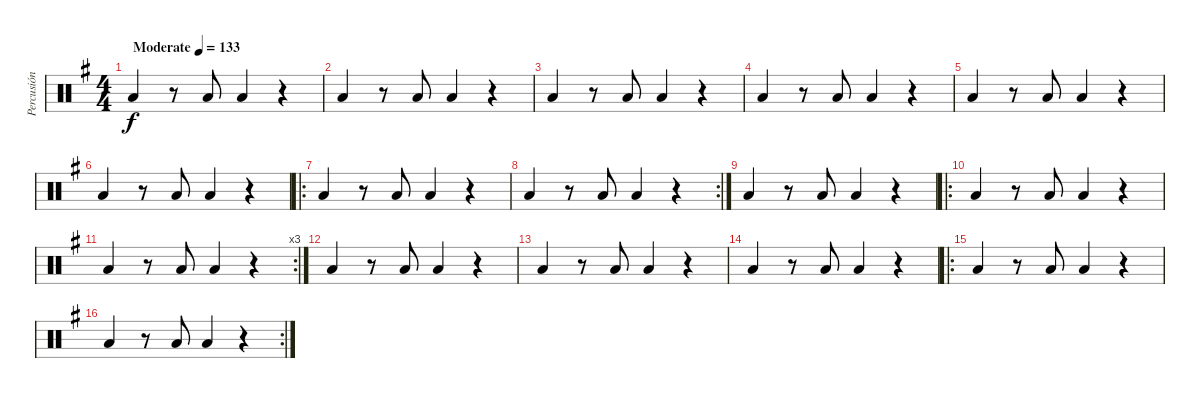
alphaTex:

\track ("Percusión" "Percusión") {instrument percussion}
\staff {score}
\articulation defaults
\ts (4 4)
\tempo (133 "Moderate")
\clef neutral
\ks g "Low Floor Tom (hit)".4{dy f}
r.8 "Low Floor Tom (hit)".8 "Low Floor Tom (hit)".4 r.4 |
"Low Floor Tom (hit)".4 r.8 "Low Floor Tom (hit)".8 "Low Floor Tom (hit)".4 r.4 |
"Low Floor Tom (hit)".4 r.8 "Low Floor Tom (hit)".8 "Low Floor Tom (hit)".4 r.4 |
"Low Floor Tom (hit)".4 r.8 "Low Floor Tom (hit)".8 "Low Floor Tom (hit)".4 r.4 |
"Low Floor Tom (hit)".4 r.8 "Low Floor Tom (hit)".8 "Low Floor Tom (hit)".4 r.4 |
"Low Floor Tom (hit)".4 r.8 "Low Floor Tom (hit)".8 "Low Floor Tom (hit)".4 r.4 |
\ro "Low Floor Tom (hit)".4
r.8 "Low Floor Tom (hit)".8 "Low Floor Tom (hit)".4 r.4 |
\rc 2 "Low Floor Tom (hit)".4
r.8 "Low Floor Tom (hit)".8 "Low Floor Tom (hit)".4 r.4 |
"Low Floor Tom (hit)".4 r.8 "Low Floor Tom (hit)".8 "Low Floor Tom (hit)".4 r.4 |
\ro "Low Floor Tom (hit)".4
r.8 "Low Floor Tom (hit)".8 "Low Floor Tom (hit)".4 r.4 |
\rc 3 "Low Floor Tom (hit)".4
r.8 "Low Floor Tom (hit)".8 "Low Floor Tom (hit)".4 r.4 |
"Low Floor Tom (hit)".4 r.8 "Low Floor Tom (hit)".8 "Low Floor Tom (hit)".4 r.4 |
"Low Floor Tom (hit)".4 r.8 "Low Floor Tom (hit)".8 "Low Floor Tom (hit)".4 r.4 |
"Low Floor Tom (hit)".4 r.8 "Low Floor Tom (hit)".8 "Low Floor Tom (hit)".4 r.4 |
\ro "Low Floor Tom (hit)".4
r.8 "Low Floor Tom (hit)".8 "Low Floor Tom (hit)".4 r.4 |
\rc 2 "Low Floor Tom (hit)".4
r.8 "Low Floor Tom (hit)".8 "Low Floor Tom (hit)".4 r.4
